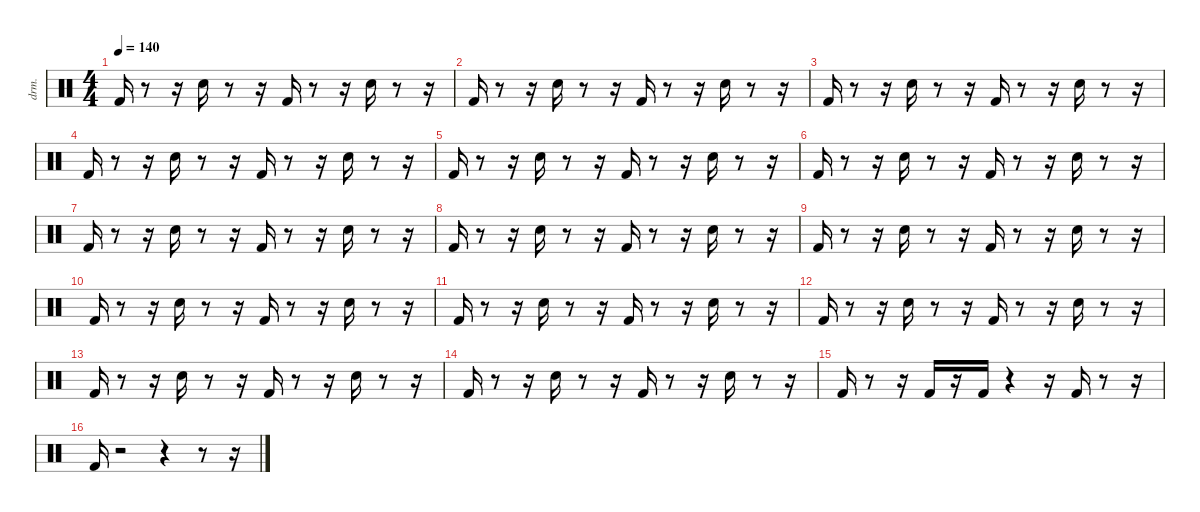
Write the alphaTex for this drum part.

\defaultSystemsLayout 4
\hideDynamics
\bracketExtendMode nobrackets
\otherSystemsTrackNameOrientation horizontal
\track ("Drums" "drm.") {instrument percussion}
\staff {score}
\articulation defaults
\ts (4 4)
\tempo 140
\clef neutral
\ks c "Kick (hit) 2".16{dy f}
r.8 r.16 "Snare (hit) 2".16 r.8 r.16 "Kick (hit) 2".16 r.8 r.16 "Snare (hit) 2".16 r.8 r.16 |
"Kick (hit) 2".16 r.8 r.16 "Snare (hit) 2".16 r.8 r.16 "Kick (hit) 2".16 r.8 r.16 "Snare (hit) 2".16 r.8 r.16 |
"Kick (hit) 2".16 r.8 r.16 "Snare (hit) 2".16 r.8 r.16 "Kick (hit) 2".16 r.8 r.16 "Snare (hit) 2".16 r.8 r.16 |
"Kick (hit) 2".16 r.8 r.16 "Snare (hit) 2".16 r.8 r.16 "Kick (hit) 2".16 r.8 r.16 "Snare (hit) 2".16 r.8 r.16 |
"Kick (hit) 2".16 r.8 r.16 "Snare (hit) 2".16 r.8 r.16 "Kick (hit) 2".16 r.8 r.16 "Snare (hit) 2".16 r.8 r.16 |
"Kick (hit) 2".16 r.8 r.16 "Snare (hit) 2".16 r.8 r.16 "Kick (hit) 2".16 r.8 r.16 "Snare (hit) 2".16 r.8 r.16 |
"Kick (hit) 2".16 r.8 r.16 "Snare (hit) 2".16 r.8 r.16 "Kick (hit) 2".16 r.8 r.16 "Snare (hit) 2".16 r.8 r.16 |
"Kick (hit) 2".16 r.8 r.16 "Snare (hit) 2".16 r.8 r.16 "Kick (hit) 2".16 r.8 r.16 "Snare (hit) 2".16 r.8 r.16 |
"Kick (hit) 2".16 r.8 r.16 "Snare (hit) 2".16 r.8 r.16 "Kick (hit) 2".16 r.8 r.16 "Snare (hit) 2".16 r.8 r.16 |
"Kick (hit) 2".16 r.8 r.16 "Snare (hit) 2".16 r.8 r.16 "Kick (hit) 2".16 r.8 r.16 "Snare (hit) 2".16 r.8 r.16 |
"Kick (hit) 2".16 r.8 r.16 "Snare (hit) 2".16 r.8 r.16 "Kick (hit) 2".16 r.8 r.16 "Snare (hit) 2".16 r.8 r.16 |
"Kick (hit) 2".16 r.8 r.16 "Snare (hit) 2".16 r.8 r.16 "Kick (hit) 2".16 r.8 r.16 "Snare (hit) 2".16 r.8 r.16 |
"Kick (hit) 2".16 r.8 r.16 "Snare (hit) 2".16 r.8 r.16 "Kick (hit) 2".16 r.8 r.16 "Snare (hit) 2".16 r.8 r.16 |
"Kick (hit) 2".16 r.8 r.16 "Snare (hit) 2".16 r.8 r.16 "Kick (hit) 2".16 r.8 r.16 "Snare (hit) 2".16 r.8 r.16 |
"Kick (hit) 2".16 r.8 r.16 "Kick (hit) 2".16 r.16 "Kick (hit) 2".16 r.4 r.16 "Kick (hit) 2".16 r.8 r.16 |
"Kick (hit) 2".16 r.2 r.4 r.8 r.16
